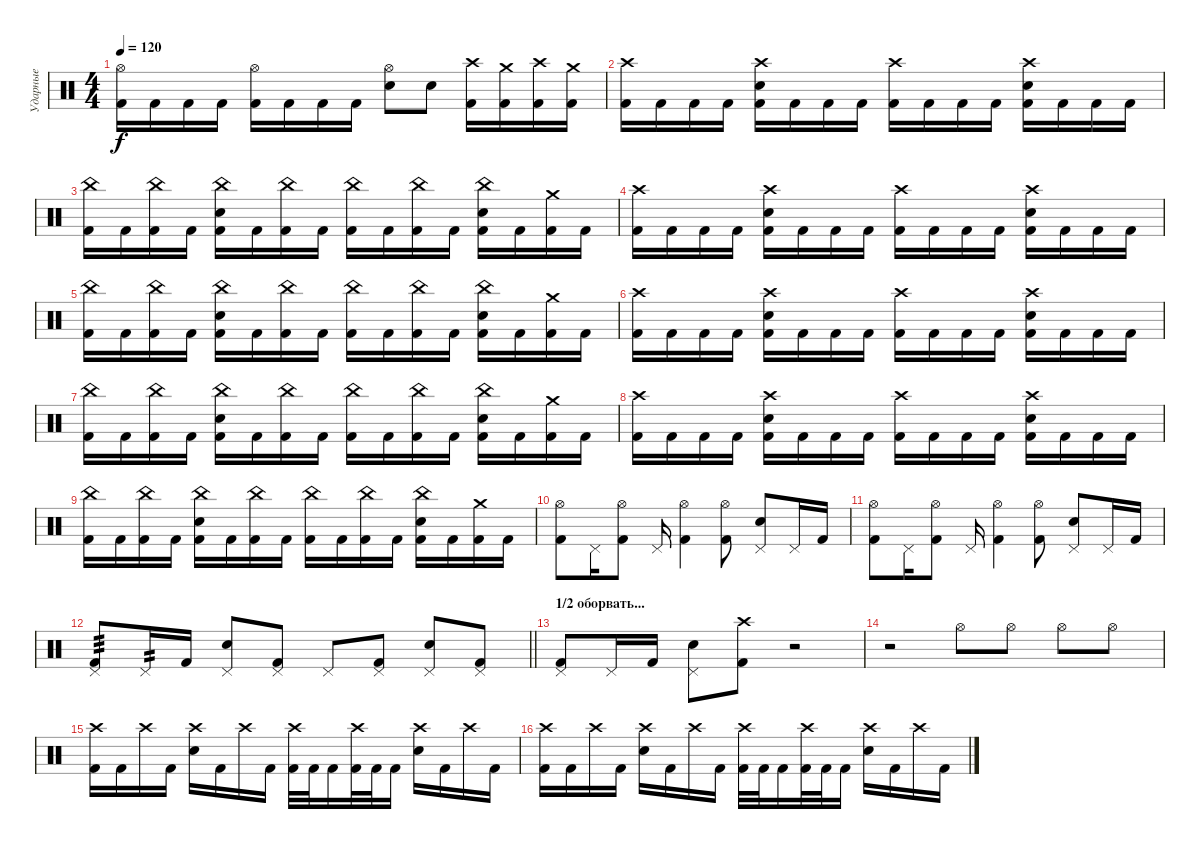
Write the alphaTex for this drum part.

\track ("Ударные" "Ударные") {instrument percussion}
\staff {score}
\articulation defaults
\ts (4 4)
\tempo 120
\clef neutral
\ks c
("Hi-Hat (open)" "Kick (hit) 2").16{dy f} "Kick (hit) 2".16 "Kick (hit) 2".16 "Kick (hit) 2".16 ("Hi-Hat (open)" "Kick (hit) 2").16 "Kick (hit) 2".16 "Kick (hit) 2".16 "Kick (hit) 2".16 ("Hi-Hat (open)" "Electric Snare (hit)").8 "Electric Snare (hit)".8 ("Crash high (hit)" "Kick (hit) 2").16 ("Crash medium (hit)" "Kick (hit) 2").16 ("Crash high (hit)" "Kick (hit) 2").16 ("Crash medium (hit)" "Kick (hit) 2").16 |
("Crash high (hit)" "Kick (hit) 2").16 "Kick (hit) 2".16 "Kick (hit) 2".16 "Kick (hit) 2".16 ("Crash high (hit)" "Electric Snare (hit)" "Kick (hit) 2").16 "Kick (hit) 2".16 "Kick (hit) 2".16 "Kick (hit) 2".16 ("Crash high (hit)" "Kick (hit) 2").16 "Kick (hit) 2".16 "Kick (hit) 2".16 "Kick (hit) 2".16 ("Crash high (hit)" "Electric Snare (hit)" "Kick (hit) 2").16 "Kick (hit) 2".16 "Kick (hit) 2".16 "Kick (hit) 2".16 |
("China (hit)" "Kick (hit) 2").16 "Kick (hit) 2".16 ("China (hit)" "Kick (hit) 2").16 "Kick (hit) 2".16 ("China (hit)" "Electric Snare (hit)" "Kick (hit) 2").16 "Kick (hit) 2".16 ("China (hit)" "Kick (hit) 2").16 "Kick (hit) 2".16 ("China (hit)" "Kick (hit) 2").16 "Kick (hit) 2".16 ("China (hit)" "Kick (hit) 2").16 "Kick (hit) 2".16 ("China (hit)" "Electric Snare (hit)" "Kick (hit) 2").16 "Kick (hit) 2".16 ("Crash medium (hit)" "Kick (hit) 2").16 "Kick (hit) 2".16 |
("Crash high (hit)" "Kick (hit) 2").16 "Kick (hit) 2".16 "Kick (hit) 2".16 "Kick (hit) 2".16 ("Crash high (hit)" "Electric Snare (hit)" "Kick (hit) 2").16 "Kick (hit) 2".16 "Kick (hit) 2".16 "Kick (hit) 2".16 ("Crash high (hit)" "Kick (hit) 2").16 "Kick (hit) 2".16 "Kick (hit) 2".16 "Kick (hit) 2".16 ("Crash high (hit)" "Electric Snare (hit)" "Kick (hit) 2").16 "Kick (hit) 2".16 "Kick (hit) 2".16 "Kick (hit) 2".16 |
("China (hit)" "Kick (hit) 2").16 "Kick (hit) 2".16 ("China (hit)" "Kick (hit) 2").16 "Kick (hit) 2".16 ("China (hit)" "Electric Snare (hit)" "Kick (hit) 2").16 "Kick (hit) 2".16 ("China (hit)" "Kick (hit) 2").16 "Kick (hit) 2".16 ("China (hit)" "Kick (hit) 2").16 "Kick (hit) 2".16 ("China (hit)" "Kick (hit) 2").16 "Kick (hit) 2".16 ("China (hit)" "Electric Snare (hit)" "Kick (hit) 2").16 "Kick (hit) 2".16 ("Crash medium (hit)" "Kick (hit) 2").16 "Kick (hit) 2".16 |
("Crash high (hit)" "Kick (hit) 2").16 "Kick (hit) 2".16 "Kick (hit) 2".16 "Kick (hit) 2".16 ("Crash high (hit)" "Electric Snare (hit)" "Kick (hit) 2").16 "Kick (hit) 2".16 "Kick (hit) 2".16 "Kick (hit) 2".16 ("Crash high (hit)" "Kick (hit) 2").16 "Kick (hit) 2".16 "Kick (hit) 2".16 "Kick (hit) 2".16 ("Crash high (hit)" "Electric Snare (hit)" "Kick (hit) 2").16 "Kick (hit) 2".16 "Kick (hit) 2".16 "Kick (hit) 2".16 |
("China (hit)" "Kick (hit) 2").16 "Kick (hit) 2".16 ("China (hit)" "Kick (hit) 2").16 "Kick (hit) 2".16 ("China (hit)" "Electric Snare (hit)" "Kick (hit) 2").16 "Kick (hit) 2".16 ("China (hit)" "Kick (hit) 2").16 "Kick (hit) 2".16 ("China (hit)" "Kick (hit) 2").16 "Kick (hit) 2".16 ("China (hit)" "Kick (hit) 2").16 "Kick (hit) 2".16 ("China (hit)" "Electric Snare (hit)" "Kick (hit) 2").16 "Kick (hit) 2".16 ("Crash medium (hit)" "Kick (hit) 2").16 "Kick (hit) 2".16 |
("Crash high (hit)" "Kick (hit) 2").16 "Kick (hit) 2".16 "Kick (hit) 2".16 "Kick (hit) 2".16 ("Crash high (hit)" "Electric Snare (hit)" "Kick (hit) 2").16 "Kick (hit) 2".16 "Kick (hit) 2".16 "Kick (hit) 2".16 ("Crash high (hit)" "Kick (hit) 2").16 "Kick (hit) 2".16 "Kick (hit) 2".16 "Kick (hit) 2".16 ("Crash high (hit)" "Electric Snare (hit)" "Kick (hit) 2").16 "Kick (hit) 2".16 "Kick (hit) 2".16 "Kick (hit) 2".16 |
("China (hit)" "Kick (hit) 2").16 "Kick (hit) 2".16 ("China (hit)" "Kick (hit) 2").16 "Kick (hit) 2".16 ("China (hit)" "Electric Snare (hit)" "Kick (hit) 2").16 "Kick (hit) 2".16 ("China (hit)" "Kick (hit) 2").16 "Kick (hit) 2".16 ("China (hit)" "Kick (hit) 2").16 "Kick (hit) 2".16 ("China (hit)" "Kick (hit) 2").16 "Kick (hit) 2".16 ("China (hit)" "Electric Snare (hit)" "Kick (hit) 2").16 "Kick (hit) 2".16 ("Crash medium (hit)" "Kick (hit) 2").16 "Kick (hit) 2".16 |
("Hi-Hat (open)" "Kick (hit) 2").8 "Pedal Hi-Hat (hit)".16 ("Hi-Hat (open)" "Kick (hit) 2").8 "Pedal Hi-Hat (hit)".16 ("Hi-Hat (open)" "Kick (hit) 2").4 ("Hi-Hat (open)" "Kick (hit) 2").8 ("Pedal Hi-Hat (hit)" "Electric Snare (hit)").8 "Pedal Hi-Hat (hit)".16 "Kick (hit) 2".16 |
("Hi-Hat (open)" "Kick (hit) 2").8 "Pedal Hi-Hat (hit)".16 ("Hi-Hat (open)" "Kick (hit) 2").8 "Pedal Hi-Hat (hit)".16 ("Hi-Hat (open)" "Kick (hit) 2").4 ("Hi-Hat (open)" "Kick (hit) 2").8 ("Pedal Hi-Hat (hit)" "Electric Snare (hit)").8 "Pedal Hi-Hat (hit)".16 "Kick (hit) 2".16 |
\barLineRight lightlight
("Pedal Hi-Hat (hit)" "Kick (hit) 2").8{tp 3} "Pedal Hi-Hat (hit)".16{tp 2} "Kick (hit) 2".16 ("Pedal Hi-Hat (hit)" "Electric Snare (hit)").8 ("Pedal Hi-Hat (hit)" "Kick (hit) 2").8 "Pedal Hi-Hat (hit)".8 ("Pedal Hi-Hat (hit)" "Kick (hit) 2").8 ("Pedal Hi-Hat (hit)" "Electric Snare (hit)").8 ("Pedal Hi-Hat (hit)" "Kick (hit) 2").8 |
\section ("" "1/2 оборвать...")
("Pedal Hi-Hat (hit)" "Kick (hit) 2").8 "Pedal Hi-Hat (hit)".16 "Kick (hit) 2".16 ("Pedal Hi-Hat (hit)" "Electric Snare (hit)").8 ("Crash high (hit)" "Kick (hit) 2").8 r.2 |
r.2 "Hi-Hat (open)".8 "Hi-Hat (open)".8 "Hi-Hat (open)".8 "Hi-Hat (open)".8 |
("Crash high (hit)" "Kick (hit) 2").16 "Kick (hit) 2".16 "Crash high (hit)".16 "Kick (hit) 2".16 ("Crash high (hit)" "Electric Snare (hit)").16 "Kick (hit) 2".16 "Crash high (hit)".16 "Kick (hit) 2".16 ("Crash high (hit)" "Kick (hit) 2").32 "Kick (hit) 2".32 "Kick (hit) 2".16 ("Crash high (hit)" "Kick (hit) 2").32 "Kick (hit) 2".32 "Kick (hit) 2".16 ("Crash high (hit)" "Electric Snare (hit)").16 "Kick (hit) 2".16 "Crash high (hit)".16 "Kick (hit) 2".16 |
("Crash high (hit)" "Kick (hit) 2").16 "Kick (hit) 2".16 "Crash high (hit)".16 "Kick (hit) 2".16 ("Crash high (hit)" "Electric Snare (hit)").16 "Kick (hit) 2".16 "Crash high (hit)".16 "Kick (hit) 2".16 ("Crash high (hit)" "Kick (hit) 2").32 "Kick (hit) 2".32 "Kick (hit) 2".16 ("Crash high (hit)" "Kick (hit) 2").32 "Kick (hit) 2".32 "Kick (hit) 2".16 ("Crash high (hit)" "Electric Snare (hit)").16 "Kick (hit) 2".16 "Crash high (hit)".16 "Kick (hit) 2".16
